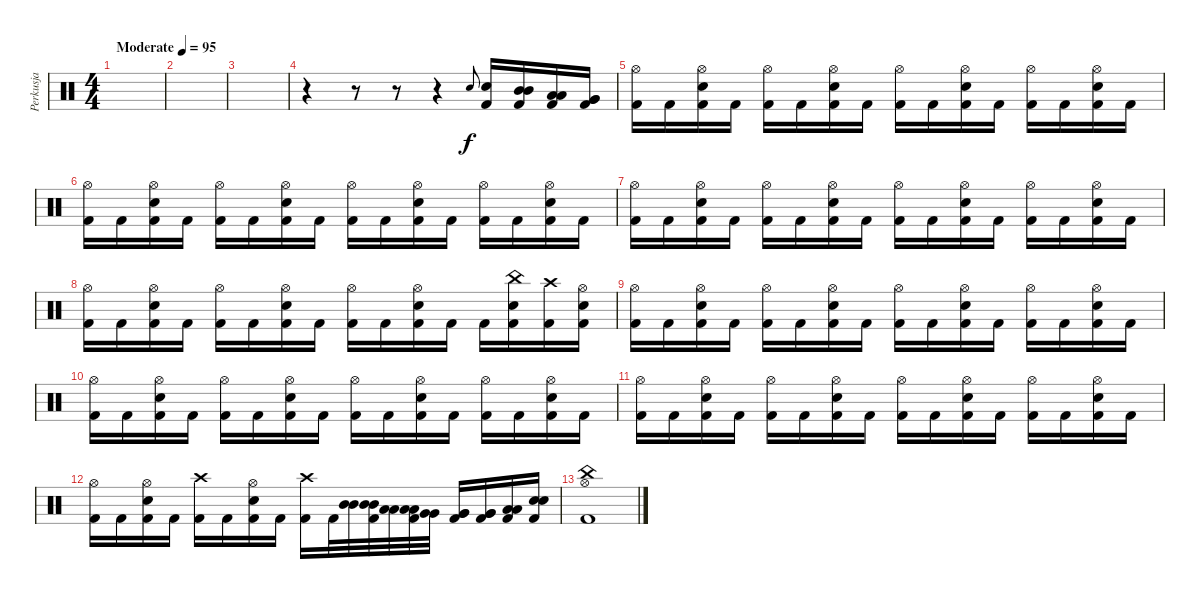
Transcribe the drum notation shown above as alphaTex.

\track ("Perkusja" "Perkusja") {instrument percussion}
\staff {score}
\articulation defaults
\ts (4 4)
\tempo (95 "Moderate")
\clef neutral
\ks c
|
|
|
r.4 r.8 r.8 r.4 "Electric Snare (hit)".8{gr onbeat} ("Electric Snare (hit)" "Kick (hit) 2").16 ("Mid Tom (hit)" "Mid Tom (hit)" "Kick (hit) 2").16 ("Low Tom (hit)" "Low Tom (hit)" "Kick (hit) 2").16 ("Very Low Tom (hit)" "Very Low Tom (hit)" "Kick (hit) 2").16 |
("Hi-Hat (open)" "Kick (hit) 2").16 "Kick (hit) 2".16 ("Hi-Hat (open)" "Electric Snare (hit)" "Kick (hit) 2").16 "Kick (hit) 2".16 ("Hi-Hat (open)" "Kick (hit) 2").16 "Kick (hit) 2".16 ("Hi-Hat (open)" "Electric Snare (hit)" "Kick (hit) 2").16 "Kick (hit) 2".16 ("Hi-Hat (open)" "Kick (hit) 2").16 "Kick (hit) 2".16 ("Hi-Hat (open)" "Electric Snare (hit)" "Kick (hit) 2").16 "Kick (hit) 2".16 ("Hi-Hat (open)" "Kick (hit) 2").16 "Kick (hit) 2".16 ("Hi-Hat (open)" "Electric Snare (hit)" "Kick (hit) 2").16 "Kick (hit) 2".16 |
("Hi-Hat (open)" "Kick (hit) 2").16 "Kick (hit) 2".16 ("Hi-Hat (open)" "Electric Snare (hit)" "Kick (hit) 2").16 "Kick (hit) 2".16 ("Hi-Hat (open)" "Kick (hit) 2").16 "Kick (hit) 2".16 ("Hi-Hat (open)" "Electric Snare (hit)" "Kick (hit) 2").16 "Kick (hit) 2".16 ("Hi-Hat (open)" "Kick (hit) 2").16 "Kick (hit) 2".16 ("Hi-Hat (open)" "Electric Snare (hit)" "Kick (hit) 2").16 "Kick (hit) 2".16 ("Hi-Hat (open)" "Kick (hit) 2").16 "Kick (hit) 2".16 ("Hi-Hat (open)" "Electric Snare (hit)" "Kick (hit) 2").16 "Kick (hit) 2".16 |
("Hi-Hat (open)" "Kick (hit) 2").16 "Kick (hit) 2".16 ("Hi-Hat (open)" "Electric Snare (hit)" "Kick (hit) 2").16 "Kick (hit) 2".16 ("Hi-Hat (open)" "Kick (hit) 2").16 "Kick (hit) 2".16 ("Hi-Hat (open)" "Electric Snare (hit)" "Kick (hit) 2").16 "Kick (hit) 2".16 ("Hi-Hat (open)" "Kick (hit) 2").16 "Kick (hit) 2".16 ("Hi-Hat (open)" "Electric Snare (hit)" "Kick (hit) 2").16 "Kick (hit) 2".16 ("Hi-Hat (open)" "Kick (hit) 2").16 "Kick (hit) 2".16 ("Hi-Hat (open)" "Electric Snare (hit)" "Kick (hit) 2").16 "Kick (hit) 2".16 |
("Hi-Hat (open)" "Kick (hit) 2").16 "Kick (hit) 2".16 ("Hi-Hat (open)" "Electric Snare (hit)" "Kick (hit) 2").16 "Kick (hit) 2".16 ("Hi-Hat (open)" "Kick (hit) 2").16 "Kick (hit) 2".16 ("Hi-Hat (open)" "Electric Snare (hit)" "Kick (hit) 2").16 "Kick (hit) 2".16 ("Hi-Hat (open)" "Kick (hit) 2").16 "Kick (hit) 2".16 ("Hi-Hat (open)" "Electric Snare (hit)" "Kick (hit) 2").16 "Kick (hit) 2".16 "Kick (hit) 2".16 ("China (hit)" "Electric Snare (hit)" "Kick (hit) 2").16 ("Crash high (hit)" "Kick (hit) 2").16 ("Hi-Hat (open)" "Electric Snare (hit)" "Kick (hit) 2").16 |
("Hi-Hat (open)" "Kick (hit) 2").16 "Kick (hit) 2".16 ("Hi-Hat (open)" "Electric Snare (hit)" "Kick (hit) 2").16 "Kick (hit) 2".16 ("Hi-Hat (open)" "Kick (hit) 2").16 "Kick (hit) 2".16 ("Hi-Hat (open)" "Electric Snare (hit)" "Kick (hit) 2").16 "Kick (hit) 2".16 ("Hi-Hat (open)" "Kick (hit) 2").16 "Kick (hit) 2".16 ("Hi-Hat (open)" "Electric Snare (hit)" "Kick (hit) 2").16 "Kick (hit) 2".16 ("Hi-Hat (open)" "Kick (hit) 2").16 "Kick (hit) 2".16 ("Hi-Hat (open)" "Electric Snare (hit)" "Kick (hit) 2").16 "Kick (hit) 2".16 |
("Hi-Hat (open)" "Kick (hit) 2").16 "Kick (hit) 2".16 ("Hi-Hat (open)" "Electric Snare (hit)" "Kick (hit) 2").16 "Kick (hit) 2".16 ("Hi-Hat (open)" "Kick (hit) 2").16 "Kick (hit) 2".16 ("Hi-Hat (open)" "Electric Snare (hit)" "Kick (hit) 2").16 "Kick (hit) 2".16 ("Hi-Hat (open)" "Kick (hit) 2").16 "Kick (hit) 2".16 ("Hi-Hat (open)" "Electric Snare (hit)" "Kick (hit) 2").16 "Kick (hit) 2".16 ("Hi-Hat (open)" "Kick (hit) 2").16 "Kick (hit) 2".16 ("Hi-Hat (open)" "Electric Snare (hit)" "Kick (hit) 2").16 "Kick (hit) 2".16 |
("Hi-Hat (open)" "Kick (hit) 2").16 "Kick (hit) 2".16 ("Hi-Hat (open)" "Electric Snare (hit)" "Kick (hit) 2").16 "Kick (hit) 2".16 ("Hi-Hat (open)" "Kick (hit) 2").16 "Kick (hit) 2".16 ("Hi-Hat (open)" "Electric Snare (hit)" "Kick (hit) 2").16 "Kick (hit) 2".16 ("Hi-Hat (open)" "Kick (hit) 2").16 "Kick (hit) 2".16 ("Hi-Hat (open)" "Electric Snare (hit)" "Kick (hit) 2").16 "Kick (hit) 2".16 ("Hi-Hat (open)" "Kick (hit) 2").16 "Kick (hit) 2".16 ("Hi-Hat (open)" "Electric Snare (hit)" "Kick (hit) 2").16 "Kick (hit) 2".16 |
("Hi-Hat (open)" "Kick (hit) 2").16 "Kick (hit) 2".16 ("Hi-Hat (open)" "Electric Snare (hit)" "Kick (hit) 2").16 "Kick (hit) 2".16 ("Crash high (hit)" "Kick (hit) 2").16 "Kick (hit) 2".16 ("Hi-Hat (open)" "Electric Snare (hit)" "Kick (hit) 2").16 "Kick (hit) 2".16 ("Crash high (hit)" "Kick (hit) 2").16 "Kick (hit) 2".32 ("Mid Tom (hit)" "Mid Tom (hit)").32 ("Mid Tom (hit)" "Mid Tom (hit)" "Kick (hit) 2").32 ("Low Tom (hit)" "Low Tom (hit)").32 ("Low Tom (hit)" "Low Tom (hit)" "Kick (hit) 2").32 ("Very Low Tom (hit)" "Very Low Tom (hit)").32 ("Very Low Tom (hit)" "Very Low Tom (hit)" "Kick (hit) 2").16 ("Very Low Tom (hit)" "Very Low Tom (hit)" "Kick (hit) 2").16 ("Low Floor Tom (hit)" "Low Floor Tom (hit)" "Kick (hit) 2").16 ("Electric Snare (hit)" "Electric Snare (hit)" "Kick (hit) 2").16 |
("Hi-Hat (open)" "China (hit)" "Kick (hit) 2").1
